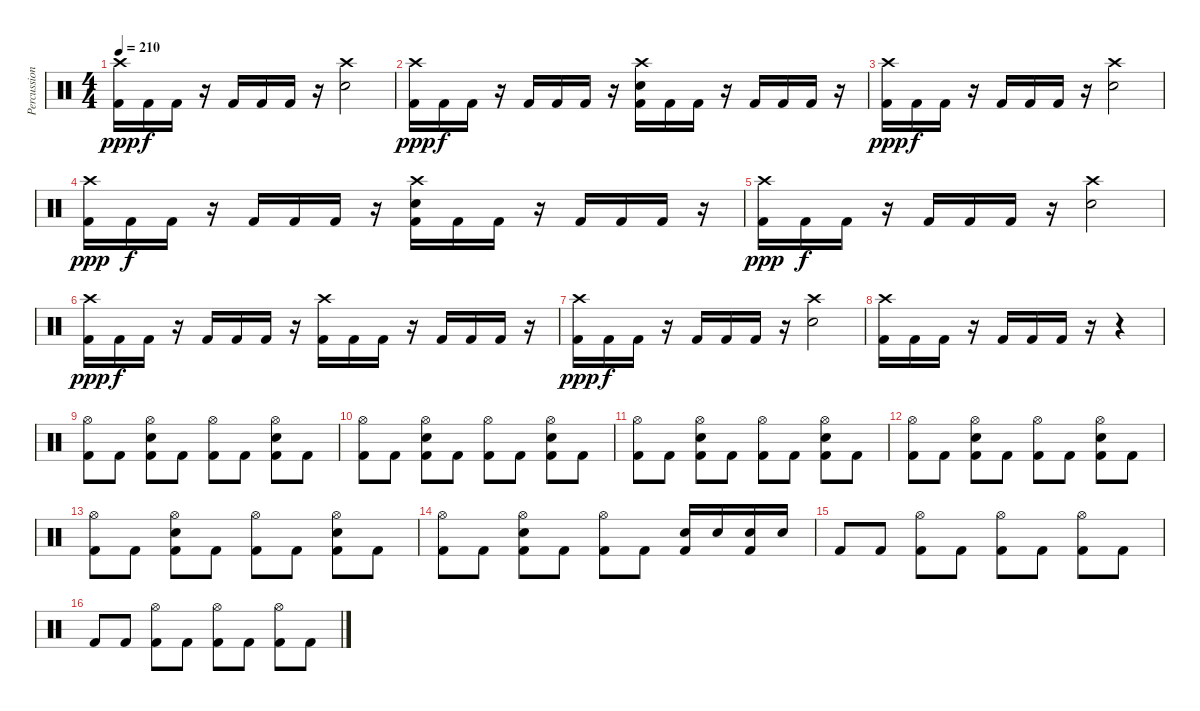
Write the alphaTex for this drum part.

\track ("Percussion" "Percussion") {instrument percussion}
\staff {score}
\articulation defaults
\ts (4 4)
\tempo 210
\clef neutral
\ks c
("Crash high (hit)" "Kick (hit) 2").16{dy ppp} "Kick (hit) 2".16{dy f} "Kick (hit) 2".16 r.16 "Kick (hit) 2".16 "Kick (hit) 2".16 "Kick (hit) 2".16 r.16 ("Crash high (hit)" "Electric Snare (hit)").2 |
("Crash high (hit)" "Kick (hit) 2").16{dy ppp} "Kick (hit) 2".16{dy f} "Kick (hit) 2".16 r.16 "Kick (hit) 2".16 "Kick (hit) 2".16 "Kick (hit) 2".16 r.16 ("Crash high (hit)" "Kick (hit) 2" "Electric Snare (hit)").16 "Kick (hit) 2".16 "Kick (hit) 2".16 r.16 "Kick (hit) 2".16 "Kick (hit) 2".16 "Kick (hit) 2".16 r.16 |
("Crash high (hit)" "Kick (hit) 2").16{dy ppp} "Kick (hit) 2".16{dy f} "Kick (hit) 2".16 r.16 "Kick (hit) 2".16 "Kick (hit) 2".16 "Kick (hit) 2".16 r.16 ("Crash high (hit)" "Electric Snare (hit)").2 |
("Crash high (hit)" "Kick (hit) 2").16{dy ppp} "Kick (hit) 2".16{dy f} "Kick (hit) 2".16 r.16 "Kick (hit) 2".16 "Kick (hit) 2".16 "Kick (hit) 2".16 r.16 ("Crash high (hit)" "Kick (hit) 2" "Electric Snare (hit)").16 "Kick (hit) 2".16 "Kick (hit) 2".16 r.16 "Kick (hit) 2".16 "Kick (hit) 2".16 "Kick (hit) 2".16 r.16 |
("Crash high (hit)" "Kick (hit) 2").16{dy ppp} "Kick (hit) 2".16{dy f} "Kick (hit) 2".16 r.16 "Kick (hit) 2".16 "Kick (hit) 2".16 "Kick (hit) 2".16 r.16 ("Crash high (hit)" "Electric Snare (hit)").2 |
("Crash high (hit)" "Kick (hit) 2").16{dy ppp} "Kick (hit) 2".16{dy f} "Kick (hit) 2".16 r.16 "Kick (hit) 2".16 "Kick (hit) 2".16 "Kick (hit) 2".16 r.16 ("Crash high (hit)" "Kick (hit) 2").16 "Kick (hit) 2".16 "Kick (hit) 2".16 r.16 "Kick (hit) 2".16 "Kick (hit) 2".16 "Kick (hit) 2".16 r.16 |
("Crash high (hit)" "Kick (hit) 2").16{dy ppp} "Kick (hit) 2".16{dy f} "Kick (hit) 2".16 r.16 "Kick (hit) 2".16 "Kick (hit) 2".16 "Kick (hit) 2".16 r.16 ("Crash high (hit)" "Electric Snare (hit)").2 |
("Crash high (hit)" "Kick (hit) 2").16 "Kick (hit) 2".16 "Kick (hit) 2".16 r.16 "Kick (hit) 2".16 "Kick (hit) 2".16 "Kick (hit) 2".16 r.16 r.4 |
("Kick (hit) 2" "Hi-Hat (open)").8 "Kick (hit) 2".8 ("Electric Snare (hit)" "Kick (hit) 2" "Hi-Hat (open)").8 "Kick (hit) 2".8 ("Kick (hit) 2" "Hi-Hat (open)").8 "Kick (hit) 2".8 ("Electric Snare (hit)" "Kick (hit) 2" "Hi-Hat (open)").8 "Kick (hit) 2".8 |
("Kick (hit) 2" "Hi-Hat (open)").8 "Kick (hit) 2".8 ("Electric Snare (hit)" "Kick (hit) 2" "Hi-Hat (open)").8 "Kick (hit) 2".8 ("Kick (hit) 2" "Hi-Hat (open)").8 "Kick (hit) 2".8 ("Electric Snare (hit)" "Kick (hit) 2" "Hi-Hat (open)").8 "Kick (hit) 2".8 |
("Kick (hit) 2" "Hi-Hat (open)").8 "Kick (hit) 2".8 ("Electric Snare (hit)" "Kick (hit) 2" "Hi-Hat (open)").8 "Kick (hit) 2".8 ("Kick (hit) 2" "Hi-Hat (open)").8 "Kick (hit) 2".8 ("Electric Snare (hit)" "Kick (hit) 2" "Hi-Hat (open)").8 "Kick (hit) 2".8 |
("Kick (hit) 2" "Hi-Hat (open)").8 "Kick (hit) 2".8 ("Electric Snare (hit)" "Kick (hit) 2" "Hi-Hat (open)").8 "Kick (hit) 2".8 ("Kick (hit) 2" "Hi-Hat (open)").8 "Kick (hit) 2".8 ("Electric Snare (hit)" "Kick (hit) 2" "Hi-Hat (open)").8 "Kick (hit) 2".8 |
("Kick (hit) 2" "Hi-Hat (open)").8 "Kick (hit) 2".8 ("Electric Snare (hit)" "Kick (hit) 2" "Hi-Hat (open)").8 "Kick (hit) 2".8 ("Kick (hit) 2" "Hi-Hat (open)").8 "Kick (hit) 2".8 ("Electric Snare (hit)" "Kick (hit) 2" "Hi-Hat (open)").8 "Kick (hit) 2".8 |
("Kick (hit) 2" "Hi-Hat (open)").8 "Kick (hit) 2".8 ("Electric Snare (hit)" "Kick (hit) 2" "Hi-Hat (open)").8 "Kick (hit) 2".8 ("Kick (hit) 2" "Hi-Hat (open)").8 "Kick (hit) 2".8 ("Electric Snare (hit)" "Kick (hit) 2").16 "Electric Snare (hit)".16 ("Electric Snare (hit)" "Kick (hit) 2").16 "Electric Snare (hit)".16 |
"Kick (hit) 2".8 "Kick (hit) 2".8 ("Hi-Hat (open)" "Kick (hit) 2").8 "Kick (hit) 2".8 ("Hi-Hat (open)" "Kick (hit) 2").8 "Kick (hit) 2".8 ("Hi-Hat (open)" "Kick (hit) 2").8 "Kick (hit) 2".8 |
"Kick (hit) 2".8 "Kick (hit) 2".8 ("Hi-Hat (open)" "Kick (hit) 2").8 "Kick (hit) 2".8 ("Hi-Hat (open)" "Kick (hit) 2").8 "Kick (hit) 2".8 ("Hi-Hat (open)" "Kick (hit) 2").8 "Kick (hit) 2".8
